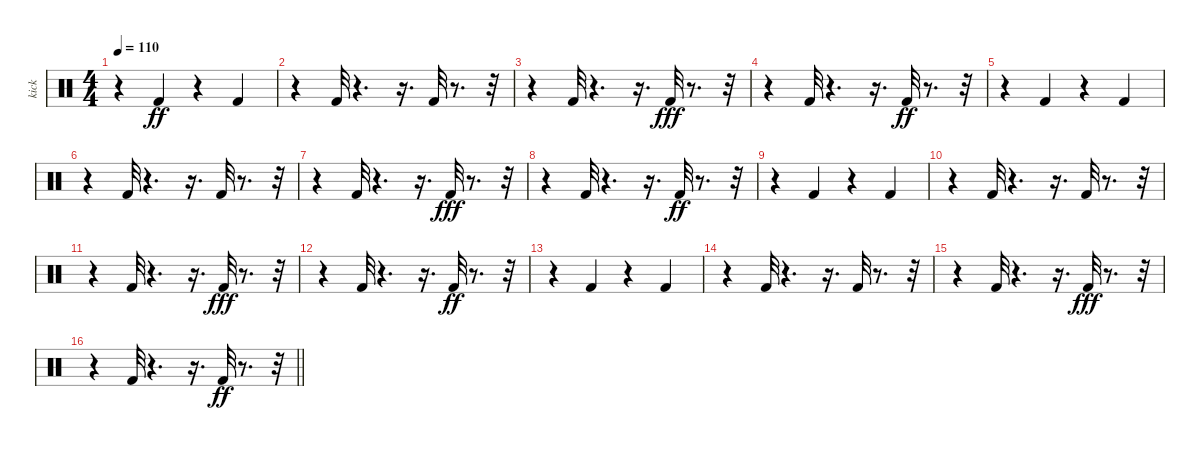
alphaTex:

\track ("kick    " "kick    ") {instrument percussion}
\staff {score}
\articulation defaults
\ts (4 4)
\tempo 110
\clef neutral
\ks c
r.4{dy ff} "Kick (hit) 2".4 r.4 "Kick (hit) 2".4 |
r.4 "Kick (hit) 2".32 r.4{d} r.16{d} "Kick (hit) 2".32 r.8{d} r.32 |
r.4 "Kick (hit) 2".32 r.4{d} r.16{d} "Kick (hit) 2".32{dy fff} r.8{d} r.32 |
r.4 "Kick (hit) 2".32 r.4{d} r.16{d} "Kick (hit) 2".32{dy ff} r.8{d} r.32 |
r.4 "Kick (hit) 2".4 r.4 "Kick (hit) 2".4 |
r.4 "Kick (hit) 2".32 r.4{d} r.16{d} "Kick (hit) 2".32 r.8{d} r.32 |
r.4 "Kick (hit) 2".32 r.4{d} r.16{d} "Kick (hit) 2".32{dy fff} r.8{d} r.32 |
r.4 "Kick (hit) 2".32 r.4{d} r.16{d} "Kick (hit) 2".32{dy ff} r.8{d} r.32 |
r.4 "Kick (hit) 2".4 r.4 "Kick (hit) 2".4 |
r.4 "Kick (hit) 2".32 r.4{d} r.16{d} "Kick (hit) 2".32 r.8{d} r.32 |
r.4 "Kick (hit) 2".32 r.4{d} r.16{d} "Kick (hit) 2".32{dy fff} r.8{d} r.32 |
r.4 "Kick (hit) 2".32 r.4{d} r.16{d} "Kick (hit) 2".32{dy ff} r.8{d} r.32 |
r.4 "Kick (hit) 2".4 r.4 "Kick (hit) 2".4 |
r.4 "Kick (hit) 2".32 r.4{d} r.16{d} "Kick (hit) 2".32 r.8{d} r.32 |
r.4 "Kick (hit) 2".32 r.4{d} r.16{d} "Kick (hit) 2".32{dy fff} r.8{d} r.32 |
\barLineRight lightlight
r.4 "Kick (hit) 2".32 r.4{d} r.16{d} "Kick (hit) 2".32{dy ff} r.8{d} r.32
